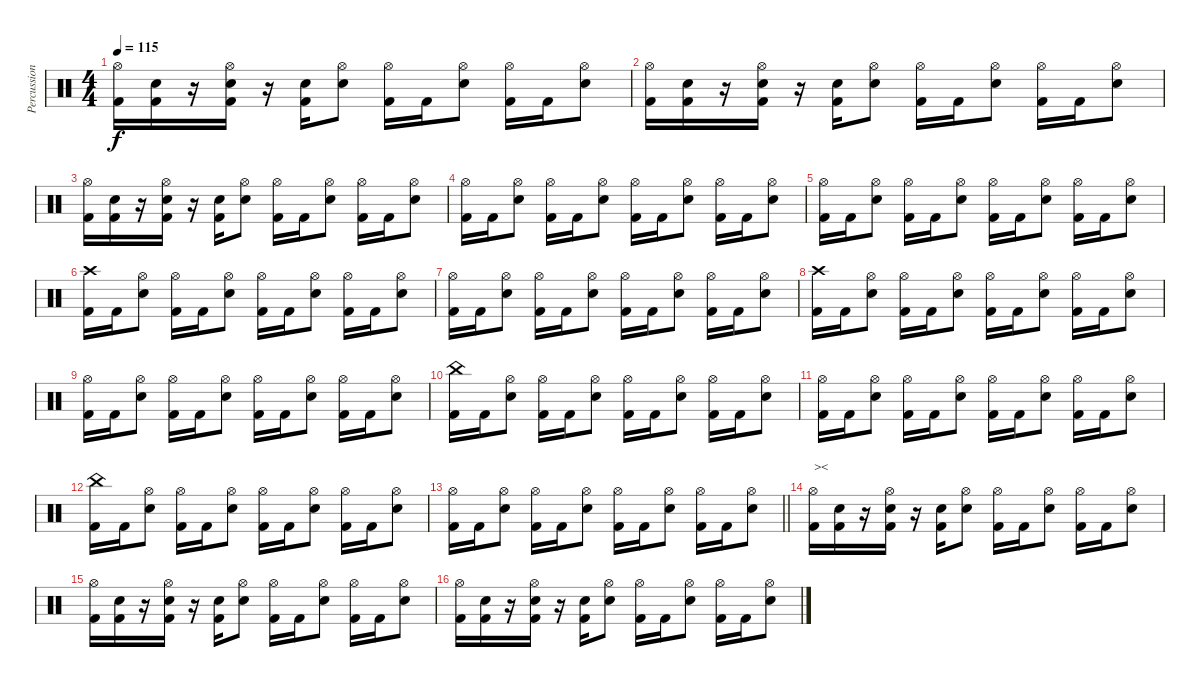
\track ("Percussion" "Percussion") {instrument percussion}
\staff {score}
\articulation defaults
\ts (4 4)
\tempo 115
\clef neutral
\ks c
("Hi-Hat (open)" "Kick (hit) 2").16{dy f} ("Snare (hit) 2" "Kick (hit) 2").16 r.16 ("Hi-Hat (open)" "Snare (hit) 2" "Kick (hit) 2").16 r.16 ("Snare (hit) 2" "Kick (hit) 2").16 ("Hi-Hat (open)" "Snare (hit) 2").8 ("Hi-Hat (open)" "Kick (hit) 2").16 "Kick (hit) 2".16 ("Hi-Hat (open)" "Snare (hit) 2").8 ("Hi-Hat (open)" "Kick (hit) 2").16 "Kick (hit) 2".16 ("Hi-Hat (open)" "Snare (hit) 2").8 |
("Hi-Hat (open)" "Kick (hit) 2").16 ("Snare (hit) 2" "Kick (hit) 2").16 r.16 ("Hi-Hat (open)" "Snare (hit) 2" "Kick (hit) 2").16 r.16 ("Snare (hit) 2" "Kick (hit) 2").16 ("Hi-Hat (open)" "Snare (hit) 2").8 ("Hi-Hat (open)" "Kick (hit) 2").16 "Kick (hit) 2".16 ("Hi-Hat (open)" "Snare (hit) 2").8 ("Hi-Hat (open)" "Kick (hit) 2").16 "Kick (hit) 2".16 ("Hi-Hat (open)" "Snare (hit) 2").8 |
("Hi-Hat (open)" "Kick (hit) 2").16 ("Snare (hit) 2" "Kick (hit) 2").16 r.16 ("Hi-Hat (open)" "Snare (hit) 2" "Kick (hit) 2").16 r.16 ("Snare (hit) 2" "Kick (hit) 2").16 ("Hi-Hat (open)" "Snare (hit) 2").8 ("Hi-Hat (open)" "Kick (hit) 2").16 "Kick (hit) 2".16 ("Hi-Hat (open)" "Snare (hit) 2").8 ("Hi-Hat (open)" "Kick (hit) 2").16 "Kick (hit) 2".16 ("Hi-Hat (open)" "Snare (hit) 2").8 |
("Hi-Hat (open)" "Kick (hit) 2").16 "Kick (hit) 2".16 ("Hi-Hat (open)" "Snare (hit) 2").8 ("Hi-Hat (open)" "Kick (hit) 2").16 "Kick (hit) 2".16 ("Hi-Hat (open)" "Snare (hit) 2").8 ("Hi-Hat (open)" "Kick (hit) 2").16 "Kick (hit) 2".16 ("Hi-Hat (open)" "Snare (hit) 2").8 ("Hi-Hat (open)" "Kick (hit) 2").16 "Kick (hit) 2".16 ("Hi-Hat (open)" "Snare (hit) 2").8 |
("Hi-Hat (open)" "Kick (hit) 2").16 "Kick (hit) 2".16 ("Hi-Hat (open)" "Snare (hit) 2").8 ("Hi-Hat (open)" "Kick (hit) 2").16 "Kick (hit) 2".16 ("Hi-Hat (open)" "Snare (hit) 2").8 ("Hi-Hat (open)" "Kick (hit) 2").16 "Kick (hit) 2".16 ("Hi-Hat (open)" "Snare (hit) 2").8 ("Hi-Hat (open)" "Kick (hit) 2").16 "Kick (hit) 2".16 ("Hi-Hat (open)" "Snare (hit) 2").8 |
("Crash high (hit)" "Kick (hit) 2").16 "Kick (hit) 2".16 ("Hi-Hat (open)" "Snare (hit) 2").8 ("Hi-Hat (open)" "Kick (hit) 2").16 "Kick (hit) 2".16 ("Hi-Hat (open)" "Snare (hit) 2").8 ("Hi-Hat (open)" "Kick (hit) 2").16 "Kick (hit) 2".16 ("Hi-Hat (open)" "Snare (hit) 2").8 ("Hi-Hat (open)" "Kick (hit) 2").16 "Kick (hit) 2".16 ("Hi-Hat (open)" "Snare (hit) 2").8 |
("Hi-Hat (open)" "Kick (hit) 2").16 "Kick (hit) 2".16 ("Hi-Hat (open)" "Snare (hit) 2").8 ("Hi-Hat (open)" "Kick (hit) 2").16 "Kick (hit) 2".16 ("Hi-Hat (open)" "Snare (hit) 2").8 ("Hi-Hat (open)" "Kick (hit) 2").16 "Kick (hit) 2".16 ("Hi-Hat (open)" "Snare (hit) 2").8 ("Hi-Hat (open)" "Kick (hit) 2").16 "Kick (hit) 2".16 ("Hi-Hat (open)" "Snare (hit) 2").8 |
("Crash high (hit)" "Kick (hit) 2").16 "Kick (hit) 2".16 ("Hi-Hat (open)" "Snare (hit) 2").8 ("Hi-Hat (open)" "Kick (hit) 2").16 "Kick (hit) 2".16 ("Hi-Hat (open)" "Snare (hit) 2").8 ("Hi-Hat (open)" "Kick (hit) 2").16 "Kick (hit) 2".16 ("Hi-Hat (open)" "Snare (hit) 2").8 ("Hi-Hat (open)" "Kick (hit) 2").16 "Kick (hit) 2".16 ("Hi-Hat (open)" "Snare (hit) 2").8 |
("Hi-Hat (open)" "Kick (hit) 2").16 "Kick (hit) 2".16 ("Hi-Hat (open)" "Snare (hit) 2").8 ("Hi-Hat (open)" "Kick (hit) 2").16 "Kick (hit) 2".16 ("Hi-Hat (open)" "Snare (hit) 2").8 ("Hi-Hat (open)" "Kick (hit) 2").16 "Kick (hit) 2".16 ("Hi-Hat (open)" "Snare (hit) 2").8 ("Hi-Hat (open)" "Kick (hit) 2").16 "Kick (hit) 2".16 ("Hi-Hat (open)" "Snare (hit) 2").8 |
("China (hit)" "Kick (hit) 2").16 "Kick (hit) 2".16 ("Hi-Hat (open)" "Snare (hit) 2").8 ("Hi-Hat (open)" "Kick (hit) 2").16 "Kick (hit) 2".16 ("Hi-Hat (open)" "Snare (hit) 2").8 ("Hi-Hat (open)" "Kick (hit) 2").16 "Kick (hit) 2".16 ("Hi-Hat (open)" "Snare (hit) 2").8 ("Hi-Hat (open)" "Kick (hit) 2").16 "Kick (hit) 2".16 ("Hi-Hat (open)" "Snare (hit) 2").8 |
("Hi-Hat (open)" "Kick (hit) 2").16 "Kick (hit) 2".16 ("Hi-Hat (open)" "Snare (hit) 2").8 ("Hi-Hat (open)" "Kick (hit) 2").16 "Kick (hit) 2".16 ("Hi-Hat (open)" "Snare (hit) 2").8 ("Hi-Hat (open)" "Kick (hit) 2").16 "Kick (hit) 2".16 ("Hi-Hat (open)" "Snare (hit) 2").8 ("Hi-Hat (open)" "Kick (hit) 2").16 "Kick (hit) 2".16 ("Hi-Hat (open)" "Snare (hit) 2").8 |
("China (hit)" "Kick (hit) 2").16 "Kick (hit) 2".16 ("Hi-Hat (open)" "Snare (hit) 2").8 ("Hi-Hat (open)" "Kick (hit) 2").16 "Kick (hit) 2".16 ("Hi-Hat (open)" "Snare (hit) 2").8 ("Hi-Hat (open)" "Kick (hit) 2").16 "Kick (hit) 2".16 ("Hi-Hat (open)" "Snare (hit) 2").8 ("Hi-Hat (open)" "Kick (hit) 2").16 "Kick (hit) 2".16 ("Hi-Hat (open)" "Snare (hit) 2").8 |
\barLineRight lightlight
("Hi-Hat (open)" "Kick (hit) 2").16 "Kick (hit) 2".16 ("Hi-Hat (open)" "Snare (hit) 2").8 ("Hi-Hat (open)" "Kick (hit) 2").16 "Kick (hit) 2".16 ("Hi-Hat (open)" "Snare (hit) 2").8 ("Hi-Hat (open)" "Kick (hit) 2").16 "Kick (hit) 2".16 ("Hi-Hat (open)" "Snare (hit) 2").8 ("Hi-Hat (open)" "Kick (hit) 2").16 "Kick (hit) 2".16 ("Hi-Hat (open)" "Snare (hit) 2").8 |
("Hi-Hat (open)" "Kick (hit) 2").16{txt "><"} ("Snare (hit) 2" "Kick (hit) 2").16 r.16 ("Hi-Hat (open)" "Snare (hit) 2" "Kick (hit) 2").16 r.16 ("Snare (hit) 2" "Kick (hit) 2").16 ("Hi-Hat (open)" "Snare (hit) 2").8 ("Hi-Hat (open)" "Kick (hit) 2").16 "Kick (hit) 2".16 ("Hi-Hat (open)" "Snare (hit) 2").8 ("Hi-Hat (open)" "Kick (hit) 2").16 "Kick (hit) 2".16 ("Hi-Hat (open)" "Snare (hit) 2").8 |
("Hi-Hat (open)" "Kick (hit) 2").16 ("Snare (hit) 2" "Kick (hit) 2").16 r.16 ("Hi-Hat (open)" "Snare (hit) 2" "Kick (hit) 2").16 r.16 ("Snare (hit) 2" "Kick (hit) 2").16 ("Hi-Hat (open)" "Snare (hit) 2").8 ("Hi-Hat (open)" "Kick (hit) 2").16 "Kick (hit) 2".16 ("Hi-Hat (open)" "Snare (hit) 2").8 ("Hi-Hat (open)" "Kick (hit) 2").16 "Kick (hit) 2".16 ("Hi-Hat (open)" "Snare (hit) 2").8 |
("Hi-Hat (open)" "Kick (hit) 2").16 ("Snare (hit) 2" "Kick (hit) 2").16 r.16 ("Hi-Hat (open)" "Snare (hit) 2" "Kick (hit) 2").16 r.16 ("Snare (hit) 2" "Kick (hit) 2").16 ("Hi-Hat (open)" "Snare (hit) 2").8 ("Hi-Hat (open)" "Kick (hit) 2").16 "Kick (hit) 2".16 ("Hi-Hat (open)" "Snare (hit) 2").8 ("Hi-Hat (open)" "Kick (hit) 2").16 "Kick (hit) 2".16 ("Hi-Hat (open)" "Snare (hit) 2").8
